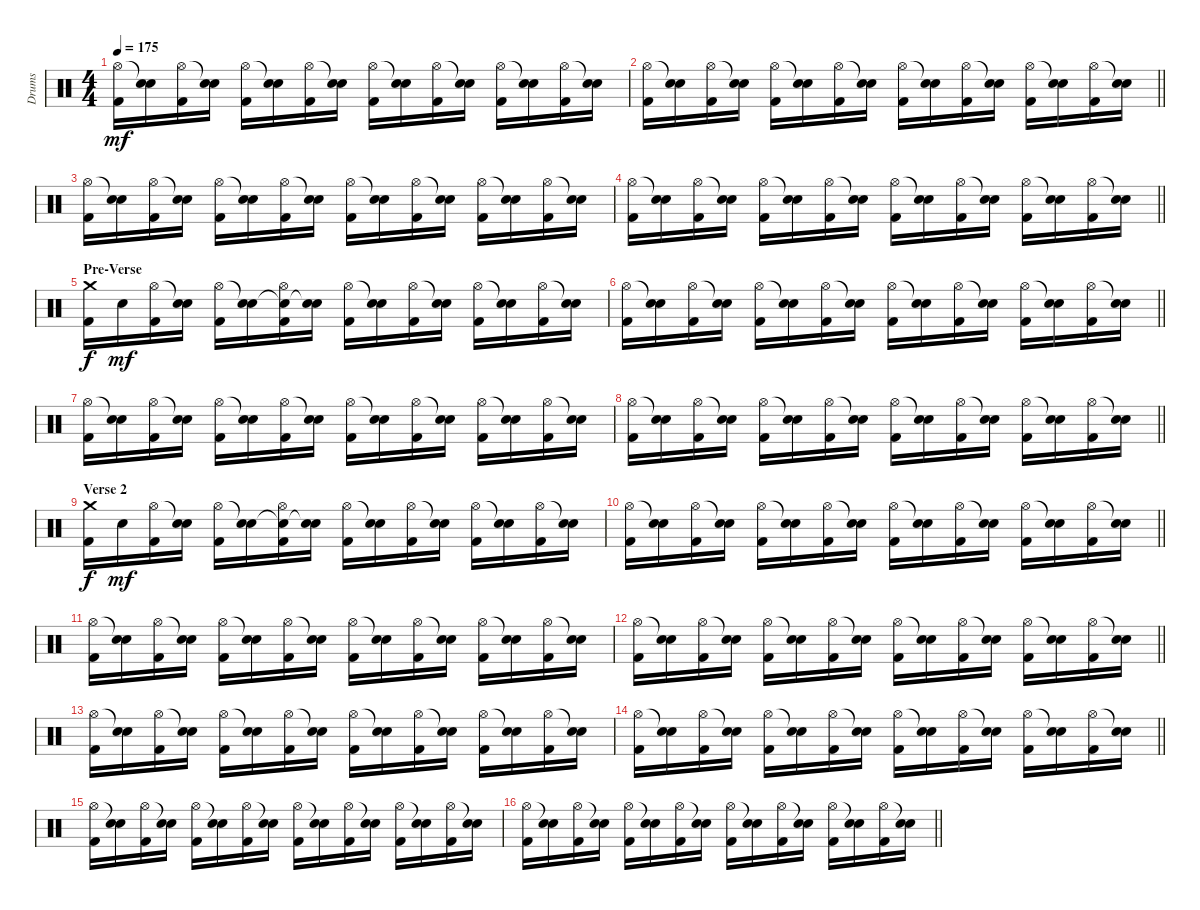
\track ("Drums" "Drums") {instrument percussion}
\staff {score}
\articulation defaults
\ts (4 4)
\tempo 175
\clef neutral
\ks c
("Hi-Hat (open)" "Kick (hit) 2").16{dy mf} ("Snare (hit)"{t} "Electric Snare (hit)").16 ("Hi-Hat (open)" "Kick (hit) 2").16 ("Snare (hit)"{t} "Electric Snare (hit)").16 ("Hi-Hat (open)" "Kick (hit) 2").16 ("Snare (hit)"{t} "Electric Snare (hit)").16 ("Hi-Hat (open)" "Kick (hit) 2").16 ("Snare (hit)"{t} "Electric Snare (hit)").16 ("Hi-Hat (open)" "Kick (hit) 2").16 ("Snare (hit)"{t} "Electric Snare (hit)").16 ("Hi-Hat (open)" "Kick (hit) 2").16 ("Snare (hit)"{t} "Electric Snare (hit)").16 ("Hi-Hat (open)" "Kick (hit) 2").16 ("Snare (hit)"{t} "Electric Snare (hit)").16 ("Hi-Hat (open)" "Kick (hit) 2").16 ("Snare (hit)"{t} "Electric Snare (hit)").16 |
\barLineRight lightlight
("Hi-Hat (open)" "Kick (hit) 2").16 ("Snare (hit)"{t} "Electric Snare (hit)").16 ("Hi-Hat (open)" "Kick (hit) 2").16 ("Snare (hit)"{t} "Electric Snare (hit)").16 ("Hi-Hat (open)" "Kick (hit) 2").16 ("Snare (hit)"{t} "Electric Snare (hit)").16 ("Hi-Hat (open)" "Kick (hit) 2").16 ("Snare (hit)"{t} "Electric Snare (hit)").16 ("Hi-Hat (open)" "Kick (hit) 2").16 ("Snare (hit)"{t} "Electric Snare (hit)").16 ("Hi-Hat (open)" "Kick (hit) 2").16 ("Snare (hit)"{t} "Electric Snare (hit)").16 ("Hi-Hat (open)" "Kick (hit) 2").16 ("Snare (hit)"{t} "Electric Snare (hit)").16 ("Hi-Hat (open)" "Kick (hit) 2").16 ("Snare (hit)"{t} "Electric Snare (hit)").16 |
("Hi-Hat (open)" "Kick (hit) 2").16 ("Snare (hit)"{t} "Electric Snare (hit)").16 ("Hi-Hat (open)" "Kick (hit) 2").16 ("Snare (hit)"{t} "Electric Snare (hit)").16 ("Hi-Hat (open)" "Kick (hit) 2").16 ("Snare (hit)"{t} "Electric Snare (hit)").16 ("Hi-Hat (open)" "Kick (hit) 2").16 ("Snare (hit)"{t} "Electric Snare (hit)").16 ("Hi-Hat (open)" "Kick (hit) 2").16 ("Snare (hit)"{t} "Electric Snare (hit)").16 ("Hi-Hat (open)" "Kick (hit) 2").16 ("Snare (hit)"{t} "Electric Snare (hit)").16 ("Hi-Hat (open)" "Kick (hit) 2").16 ("Snare (hit)"{t} "Electric Snare (hit)").16 ("Hi-Hat (open)" "Kick (hit) 2").16 ("Snare (hit)"{t} "Electric Snare (hit)").16 |
\barLineRight lightlight
("Hi-Hat (open)" "Kick (hit) 2").16 ("Snare (hit)"{t} "Electric Snare (hit)").16 ("Hi-Hat (open)" "Kick (hit) 2").16 ("Snare (hit)"{t} "Electric Snare (hit)").16 ("Hi-Hat (open)" "Kick (hit) 2").16 ("Snare (hit)"{t} "Electric Snare (hit)").16 ("Hi-Hat (open)" "Kick (hit) 2").16 ("Snare (hit)"{t} "Electric Snare (hit)").16 ("Hi-Hat (open)" "Kick (hit) 2").16 ("Snare (hit)"{t} "Electric Snare (hit)").16 ("Hi-Hat (open)" "Kick (hit) 2").16 ("Snare (hit)"{t} "Electric Snare (hit)").16 ("Hi-Hat (open)" "Kick (hit) 2").16 ("Snare (hit)"{t} "Electric Snare (hit)").16 ("Hi-Hat (open)" "Kick (hit) 2").16 ("Snare (hit)"{t} "Electric Snare (hit)").16 |
\section ("" "Pre-Verse")
("Crash medium (hit)" "Kick (hit) 2").16{dy f} "Electric Snare (hit)".16{dy mf} ("Hi-Hat (open)" "Kick (hit) 2").16 ("Snare (hit)"{t} "Electric Snare (hit)").16 ("Hi-Hat (open)" "Kick (hit) 2").16 ("Snare (hit)"{t} "Electric Snare (hit)").16 ("Snare (hit)"{t} "Hi-Hat (open)" "Kick (hit) 2").16 ("Snare (hit)"{t} "Electric Snare (hit)").16 ("Hi-Hat (open)" "Kick (hit) 2").16 ("Snare (hit)"{t} "Electric Snare (hit)").16 ("Hi-Hat (open)" "Kick (hit) 2").16 ("Snare (hit)"{t} "Electric Snare (hit)").16 ("Hi-Hat (open)" "Kick (hit) 2").16 ("Snare (hit)"{t} "Electric Snare (hit)").16 ("Hi-Hat (open)" "Kick (hit) 2").16 ("Snare (hit)"{t} "Electric Snare (hit)").16 |
\barLineRight lightlight
("Hi-Hat (open)" "Kick (hit) 2").16 ("Snare (hit)"{t} "Electric Snare (hit)").16 ("Hi-Hat (open)" "Kick (hit) 2").16 ("Snare (hit)"{t} "Electric Snare (hit)").16 ("Hi-Hat (open)" "Kick (hit) 2").16 ("Snare (hit)"{t} "Electric Snare (hit)").16 ("Hi-Hat (open)" "Kick (hit) 2").16 ("Snare (hit)"{t} "Electric Snare (hit)").16 ("Hi-Hat (open)" "Kick (hit) 2").16 ("Snare (hit)"{t} "Electric Snare (hit)").16 ("Hi-Hat (open)" "Kick (hit) 2").16 ("Snare (hit)"{t} "Electric Snare (hit)").16 ("Hi-Hat (open)" "Kick (hit) 2").16 ("Snare (hit)"{t} "Electric Snare (hit)").16 ("Hi-Hat (open)" "Kick (hit) 2").16 ("Snare (hit)"{t} "Electric Snare (hit)").16 |
("Hi-Hat (open)" "Kick (hit) 2").16 ("Snare (hit)"{t} "Electric Snare (hit)").16 ("Hi-Hat (open)" "Kick (hit) 2").16 ("Snare (hit)"{t} "Electric Snare (hit)").16 ("Hi-Hat (open)" "Kick (hit) 2").16 ("Snare (hit)"{t} "Electric Snare (hit)").16 ("Hi-Hat (open)" "Kick (hit) 2").16 ("Snare (hit)"{t} "Electric Snare (hit)").16 ("Hi-Hat (open)" "Kick (hit) 2").16 ("Snare (hit)"{t} "Electric Snare (hit)").16 ("Hi-Hat (open)" "Kick (hit) 2").16 ("Snare (hit)"{t} "Electric Snare (hit)").16 ("Hi-Hat (open)" "Kick (hit) 2").16 ("Snare (hit)"{t} "Electric Snare (hit)").16 ("Hi-Hat (open)" "Kick (hit) 2").16 ("Snare (hit)"{t} "Electric Snare (hit)").16 |
\barLineRight lightlight
("Hi-Hat (open)" "Kick (hit) 2").16 ("Snare (hit)"{t} "Electric Snare (hit)").16 ("Hi-Hat (open)" "Kick (hit) 2").16 ("Snare (hit)"{t} "Electric Snare (hit)").16 ("Hi-Hat (open)" "Kick (hit) 2").16 ("Snare (hit)"{t} "Electric Snare (hit)").16 ("Hi-Hat (open)" "Kick (hit) 2").16 ("Snare (hit)"{t} "Electric Snare (hit)").16 ("Hi-Hat (open)" "Kick (hit) 2").16 ("Snare (hit)"{t} "Electric Snare (hit)").16 ("Hi-Hat (open)" "Kick (hit) 2").16 ("Snare (hit)"{t} "Electric Snare (hit)").16 ("Hi-Hat (open)" "Kick (hit) 2").16 ("Snare (hit)"{t} "Electric Snare (hit)").16 ("Hi-Hat (open)" "Kick (hit) 2").16 ("Snare (hit)"{t} "Electric Snare (hit)").16 |
\section ("" "Verse 2")
("Crash medium (hit)" "Kick (hit) 2").16{dy f} "Electric Snare (hit)".16{dy mf} ("Hi-Hat (open)" "Kick (hit) 2").16 ("Snare (hit)"{t} "Electric Snare (hit)").16 ("Hi-Hat (open)" "Kick (hit) 2").16 ("Snare (hit)"{t} "Electric Snare (hit)").16 ("Snare (hit)"{t} "Hi-Hat (open)" "Kick (hit) 2").16 ("Snare (hit)"{t} "Electric Snare (hit)").16 ("Hi-Hat (open)" "Kick (hit) 2").16 ("Snare (hit)"{t} "Electric Snare (hit)").16 ("Hi-Hat (open)" "Kick (hit) 2").16 ("Snare (hit)"{t} "Electric Snare (hit)").16 ("Hi-Hat (open)" "Kick (hit) 2").16 ("Snare (hit)"{t} "Electric Snare (hit)").16 ("Hi-Hat (open)" "Kick (hit) 2").16 ("Snare (hit)"{t} "Electric Snare (hit)").16 |
\barLineRight lightlight
("Hi-Hat (open)" "Kick (hit) 2").16 ("Snare (hit)"{t} "Electric Snare (hit)").16 ("Hi-Hat (open)" "Kick (hit) 2").16 ("Snare (hit)"{t} "Electric Snare (hit)").16 ("Hi-Hat (open)" "Kick (hit) 2").16 ("Snare (hit)"{t} "Electric Snare (hit)").16 ("Hi-Hat (open)" "Kick (hit) 2").16 ("Snare (hit)"{t} "Electric Snare (hit)").16 ("Hi-Hat (open)" "Kick (hit) 2").16 ("Snare (hit)"{t} "Electric Snare (hit)").16 ("Hi-Hat (open)" "Kick (hit) 2").16 ("Snare (hit)"{t} "Electric Snare (hit)").16 ("Hi-Hat (open)" "Kick (hit) 2").16 ("Snare (hit)"{t} "Electric Snare (hit)").16 ("Hi-Hat (open)" "Kick (hit) 2").16 ("Snare (hit)"{t} "Electric Snare (hit)").16 |
("Hi-Hat (open)" "Kick (hit) 2").16 ("Snare (hit)"{t} "Electric Snare (hit)").16 ("Hi-Hat (open)" "Kick (hit) 2").16 ("Snare (hit)"{t} "Electric Snare (hit)").16 ("Hi-Hat (open)" "Kick (hit) 2").16 ("Snare (hit)"{t} "Electric Snare (hit)").16 ("Hi-Hat (open)" "Kick (hit) 2").16 ("Snare (hit)"{t} "Electric Snare (hit)").16 ("Hi-Hat (open)" "Kick (hit) 2").16 ("Snare (hit)"{t} "Electric Snare (hit)").16 ("Hi-Hat (open)" "Kick (hit) 2").16 ("Snare (hit)"{t} "Electric Snare (hit)").16 ("Hi-Hat (open)" "Kick (hit) 2").16 ("Snare (hit)"{t} "Electric Snare (hit)").16 ("Hi-Hat (open)" "Kick (hit) 2").16 ("Snare (hit)"{t} "Electric Snare (hit)").16 |
\barLineRight lightlight
("Hi-Hat (open)" "Kick (hit) 2").16 ("Snare (hit)"{t} "Electric Snare (hit)").16 ("Hi-Hat (open)" "Kick (hit) 2").16 ("Snare (hit)"{t} "Electric Snare (hit)").16 ("Hi-Hat (open)" "Kick (hit) 2").16 ("Snare (hit)"{t} "Electric Snare (hit)").16 ("Hi-Hat (open)" "Kick (hit) 2").16 ("Snare (hit)"{t} "Electric Snare (hit)").16 ("Hi-Hat (open)" "Kick (hit) 2").16 ("Snare (hit)"{t} "Electric Snare (hit)").16 ("Hi-Hat (open)" "Kick (hit) 2").16 ("Snare (hit)"{t} "Electric Snare (hit)").16 ("Hi-Hat (open)" "Kick (hit) 2").16 ("Snare (hit)"{t} "Electric Snare (hit)").16 ("Hi-Hat (open)" "Kick (hit) 2").16 ("Snare (hit)"{t} "Electric Snare (hit)").16 |
("Hi-Hat (open)" "Kick (hit) 2").16 ("Snare (hit)"{t} "Electric Snare (hit)").16 ("Hi-Hat (open)" "Kick (hit) 2").16 ("Snare (hit)"{t} "Electric Snare (hit)").16 ("Hi-Hat (open)" "Kick (hit) 2").16 ("Snare (hit)"{t} "Electric Snare (hit)").16 ("Hi-Hat (open)" "Kick (hit) 2").16 ("Snare (hit)"{t} "Electric Snare (hit)").16 ("Hi-Hat (open)" "Kick (hit) 2").16 ("Snare (hit)"{t} "Electric Snare (hit)").16 ("Hi-Hat (open)" "Kick (hit) 2").16 ("Snare (hit)"{t} "Electric Snare (hit)").16 ("Hi-Hat (open)" "Kick (hit) 2").16 ("Snare (hit)"{t} "Electric Snare (hit)").16 ("Hi-Hat (open)" "Kick (hit) 2").16 ("Snare (hit)"{t} "Electric Snare (hit)").16 |
\barLineRight lightlight
("Hi-Hat (open)" "Kick (hit) 2").16 ("Snare (hit)"{t} "Electric Snare (hit)").16 ("Hi-Hat (open)" "Kick (hit) 2").16 ("Snare (hit)"{t} "Electric Snare (hit)").16 ("Hi-Hat (open)" "Kick (hit) 2").16 ("Snare (hit)"{t} "Electric Snare (hit)").16 ("Hi-Hat (open)" "Kick (hit) 2").16 ("Snare (hit)"{t} "Electric Snare (hit)").16 ("Hi-Hat (open)" "Kick (hit) 2").16 ("Snare (hit)"{t} "Electric Snare (hit)").16 ("Hi-Hat (open)" "Kick (hit) 2").16 ("Snare (hit)"{t} "Electric Snare (hit)").16 ("Hi-Hat (open)" "Kick (hit) 2").16 ("Snare (hit)"{t} "Electric Snare (hit)").16 ("Hi-Hat (open)" "Kick (hit) 2").16 ("Snare (hit)"{t} "Electric Snare (hit)").16 |
("Hi-Hat (open)" "Kick (hit) 2").16 ("Snare (hit)"{t} "Electric Snare (hit)").16 ("Hi-Hat (open)" "Kick (hit) 2").16 ("Snare (hit)"{t} "Electric Snare (hit)").16 ("Hi-Hat (open)" "Kick (hit) 2").16 ("Snare (hit)"{t} "Electric Snare (hit)").16 ("Hi-Hat (open)" "Kick (hit) 2").16 ("Snare (hit)"{t} "Electric Snare (hit)").16 ("Hi-Hat (open)" "Kick (hit) 2").16 ("Snare (hit)"{t} "Electric Snare (hit)").16 ("Hi-Hat (open)" "Kick (hit) 2").16 ("Snare (hit)"{t} "Electric Snare (hit)").16 ("Hi-Hat (open)" "Kick (hit) 2").16 ("Snare (hit)"{t} "Electric Snare (hit)").16 ("Hi-Hat (open)" "Kick (hit) 2").16 ("Snare (hit)"{t} "Electric Snare (hit)").16 |
\barLineRight lightlight
("Hi-Hat (open)" "Kick (hit) 2").16 ("Snare (hit)"{t} "Electric Snare (hit)").16 ("Hi-Hat (open)" "Kick (hit) 2").16 ("Snare (hit)"{t} "Electric Snare (hit)").16 ("Hi-Hat (open)" "Kick (hit) 2").16 ("Snare (hit)"{t} "Electric Snare (hit)").16 ("Hi-Hat (open)" "Kick (hit) 2").16 ("Snare (hit)"{t} "Electric Snare (hit)").16 ("Hi-Hat (open)" "Kick (hit) 2").16 ("Snare (hit)"{t} "Electric Snare (hit)").16 ("Hi-Hat (open)" "Kick (hit) 2").16 ("Snare (hit)"{t} "Electric Snare (hit)").16 ("Hi-Hat (open)" "Kick (hit) 2").16 ("Snare (hit)"{t} "Electric Snare (hit)").16 ("Hi-Hat (open)" "Kick (hit) 2").16 ("Snare (hit)"{t} "Electric Snare (hit)").16
